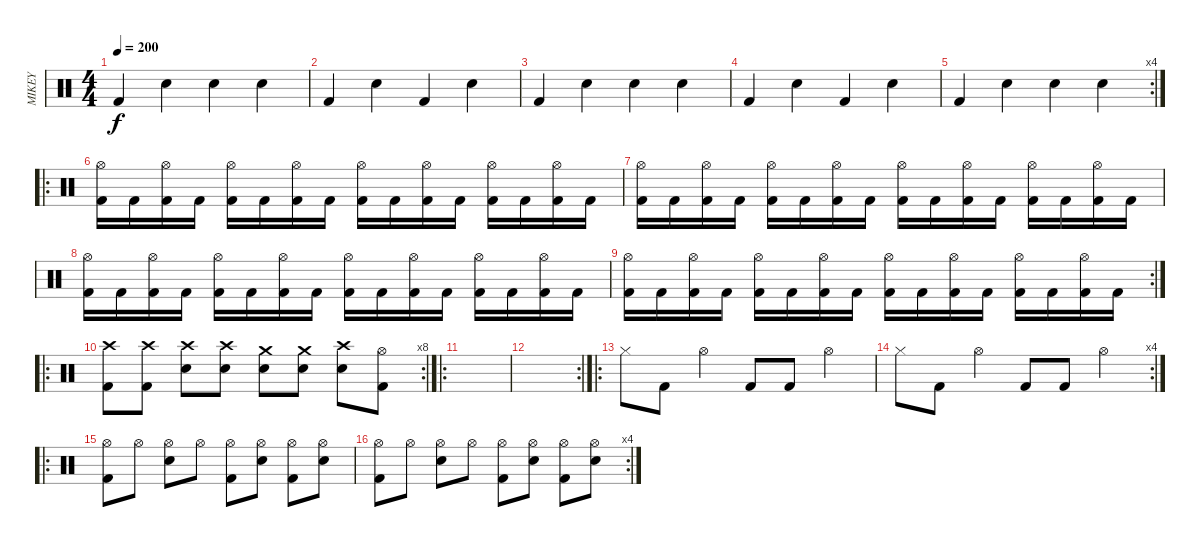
\track ("MIKEY" "MIKEY") {instrument percussion}
\staff {score}
\articulation defaults
\ts (4 4)
\tempo 200
\clef neutral
\ks c "Kick (hit) 2".4{dy f} "Snare (hit) 2".4 "Snare (hit) 2".4 "Snare (hit) 2".4
|
"Kick (hit) 2".4 "Snare (hit) 2".4 "Kick (hit) 2".4 "Snare (hit) 2".4 |
"Kick (hit) 2".4 "Snare (hit) 2".4 "Snare (hit) 2".4 "Snare (hit) 2".4 |
"Kick (hit) 2".4 "Snare (hit) 2".4 "Kick (hit) 2".4 "Snare (hit) 2".4 |
\rc 4 "Kick (hit) 2".4 "Snare (hit) 2".4 "Snare (hit) 2".4 "Snare (hit) 2".4
|
\ro
("Hi-Hat (open)" "Kick (hit) 2").16 "Kick (hit) 2".16 ("Hi-Hat (open)" "Kick (hit) 2").16 "Kick (hit) 2".16 ("Hi-Hat (open)" "Kick (hit) 2").16 "Kick (hit) 2".16 ("Hi-Hat (open)" "Kick (hit) 2").16 "Kick (hit) 2".16 ("Hi-Hat (open)" "Kick (hit) 2").16 "Kick (hit) 2".16 ("Hi-Hat (open)" "Kick (hit) 2").16 "Kick (hit) 2".16 ("Hi-Hat (open)" "Kick (hit) 2").16 "Kick (hit) 2".16 ("Hi-Hat (open)" "Kick (hit) 2").16 "Kick (hit) 2".16 |
("Hi-Hat (open)" "Kick (hit) 2").16 "Kick (hit) 2".16 ("Hi-Hat (open)" "Kick (hit) 2").16 "Kick (hit) 2".16 ("Hi-Hat (open)" "Kick (hit) 2").16 "Kick (hit) 2".16 ("Hi-Hat (open)" "Kick (hit) 2").16 "Kick (hit) 2".16 ("Hi-Hat (open)" "Kick (hit) 2").16 "Kick (hit) 2".16 ("Hi-Hat (open)" "Kick (hit) 2").16 "Kick (hit) 2".16 ("Hi-Hat (open)" "Kick (hit) 2").16 "Kick (hit) 2".16 ("Hi-Hat (open)" "Kick (hit) 2").16 "Kick (hit) 2".16 |
("Hi-Hat (open)" "Kick (hit) 2").16 "Kick (hit) 2".16 ("Hi-Hat (open)" "Kick (hit) 2").16 "Kick (hit) 2".16 ("Hi-Hat (open)" "Kick (hit) 2").16 "Kick (hit) 2".16 ("Hi-Hat (open)" "Kick (hit) 2").16 "Kick (hit) 2".16 ("Hi-Hat (open)" "Kick (hit) 2").16 "Kick (hit) 2".16 ("Hi-Hat (open)" "Kick (hit) 2").16 "Kick (hit) 2".16 ("Hi-Hat (open)" "Kick (hit) 2").16 "Kick (hit) 2".16 ("Hi-Hat (open)" "Kick (hit) 2").16 "Kick (hit) 2".16 |
\rc 2
("Hi-Hat (open)" "Kick (hit) 2").16 "Kick (hit) 2".16 ("Hi-Hat (open)" "Kick (hit) 2").16 "Kick (hit) 2".16 ("Hi-Hat (open)" "Kick (hit) 2").16 "Kick (hit) 2".16 ("Hi-Hat (open)" "Kick (hit) 2").16 "Kick (hit) 2".16 ("Hi-Hat (open)" "Kick (hit) 2").16 "Kick (hit) 2".16 ("Hi-Hat (open)" "Kick (hit) 2").16 "Kick (hit) 2".16 ("Hi-Hat (open)" "Kick (hit) 2").16 "Kick (hit) 2".16 ("Hi-Hat (open)" "Kick (hit) 2").16 "Kick (hit) 2".16 |
\ro
\rc 8
("Crash high (hit)" "Kick (hit) 2").8 ("Crash high (hit)" "Kick (hit) 2").8 ("Crash high (hit)" "Snare (hit) 2").8 ("Crash high (hit)" "Snare (hit) 2").8 ("Crash medium (hit)" "Snare (hit) 2").8 ("Crash medium (hit)" "Snare (hit) 2").8 ("Crash high (hit)" "Snare (hit) 2").8 ("Hi-Hat (open)" "Kick (hit) 2").8 |
\ro
|
\rc 2
|
\ro "Hi-Hat (closed)".8 "Kick (hit) 2".8 "Hi-Hat (open)".4 "Kick (hit) 2".8 "Kick (hit) 2".8 "Hi-Hat (open)".4
|
\rc 4 "Hi-Hat (closed)".8 "Kick (hit) 2".8 "Hi-Hat (open)".4 "Kick (hit) 2".8 "Kick (hit) 2".8 "Hi-Hat (open)".4
|
\ro
("Hi-Hat (open)" "Kick (hit) 2").8 "Hi-Hat (open)".8 ("Hi-Hat (open)" "Electric Snare (hit)").8 "Hi-Hat (open)".8 ("Hi-Hat (open)" "Kick (hit) 2").8 ("Hi-Hat (open)" "Electric Snare (hit)").8 ("Hi-Hat (open)" "Kick (hit) 2").8 ("Hi-Hat (open)" "Electric Snare (hit)").8 |
\rc 4
("Hi-Hat (open)" "Kick (hit) 2").8 "Hi-Hat (open)".8 ("Hi-Hat (open)" "Electric Snare (hit)").8 "Hi-Hat (open)".8 ("Hi-Hat (open)" "Kick (hit) 2").8 ("Hi-Hat (open)" "Electric Snare (hit)").8 ("Hi-Hat (open)" "Kick (hit) 2").8 ("Hi-Hat (open)" "Electric Snare (hit)").8
